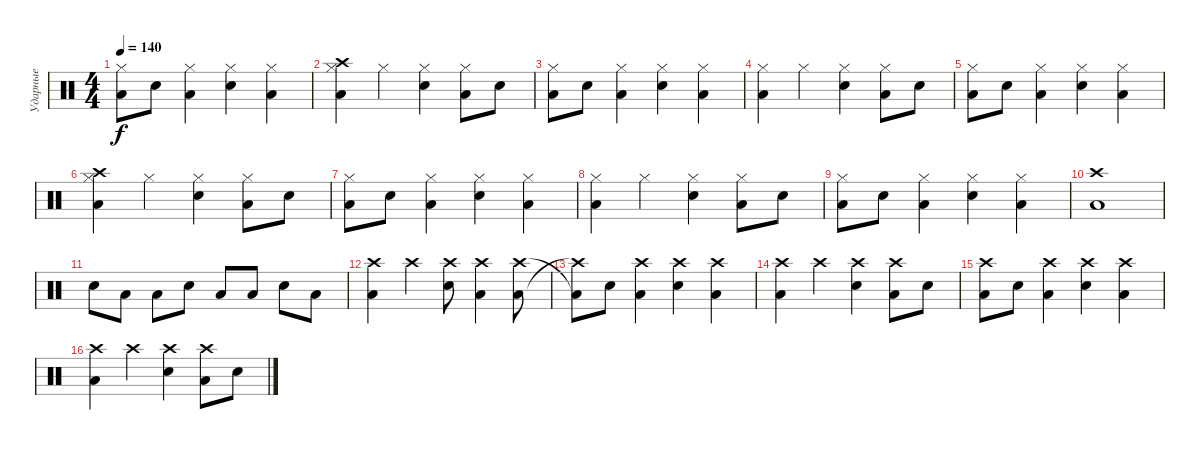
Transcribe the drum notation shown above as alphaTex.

\track ("Ударные" "Ударные") {instrument percussion}
\staff {score}
\articulation defaults
\ts (4 4)
\tempo 140
\clef neutral
\ks c
("Hi-Hat (closed)" "Low Floor Tom (hit)").8{dy f} "Electric Snare (hit)".8 ("Hi-Hat (closed)" "Low Floor Tom (hit)").4 ("Electric Snare (hit)" "Hi-Hat (closed)").4 ("Low Floor Tom (hit)" "Hi-Hat (closed)").4 |
("Hi-Hat (closed)" "Crash high (hit)" "Low Floor Tom (hit)").4 "Hi-Hat (closed)".4 ("Hi-Hat (closed)" "Electric Snare (hit)").4 ("Hi-Hat (closed)" "Low Floor Tom (hit)").8 "Electric Snare (hit)".8 |
("Hi-Hat (closed)" "Low Floor Tom (hit)").8 "Electric Snare (hit)".8 ("Hi-Hat (closed)" "Low Floor Tom (hit)").4 ("Electric Snare (hit)" "Hi-Hat (closed)").4 ("Low Floor Tom (hit)" "Hi-Hat (closed)").4 |
("Hi-Hat (closed)" "Low Floor Tom (hit)").4 "Hi-Hat (closed)".4 ("Hi-Hat (closed)" "Electric Snare (hit)").4 ("Hi-Hat (closed)" "Low Floor Tom (hit)").8 "Electric Snare (hit)".8 |
("Hi-Hat (closed)" "Low Floor Tom (hit)").8 "Electric Snare (hit)".8 ("Hi-Hat (closed)" "Low Floor Tom (hit)").4 ("Electric Snare (hit)" "Hi-Hat (closed)").4 ("Low Floor Tom (hit)" "Hi-Hat (closed)").4 |
("Hi-Hat (closed)" "Crash high (hit)" "Low Floor Tom (hit)").4 "Hi-Hat (closed)".4 ("Hi-Hat (closed)" "Electric Snare (hit)").4 ("Hi-Hat (closed)" "Low Floor Tom (hit)").8 "Electric Snare (hit)".8 |
("Hi-Hat (closed)" "Low Floor Tom (hit)").8 "Electric Snare (hit)".8 ("Hi-Hat (closed)" "Low Floor Tom (hit)").4 ("Electric Snare (hit)" "Hi-Hat (closed)").4 ("Low Floor Tom (hit)" "Hi-Hat (closed)").4 |
("Hi-Hat (closed)" "Low Floor Tom (hit)").4 "Hi-Hat (closed)".4 ("Hi-Hat (closed)" "Electric Snare (hit)").4 ("Hi-Hat (closed)" "Low Floor Tom (hit)").8 "Electric Snare (hit)".8 |
("Hi-Hat (closed)" "Low Floor Tom (hit)").8 "Electric Snare (hit)".8 ("Hi-Hat (closed)" "Low Floor Tom (hit)").4 ("Electric Snare (hit)" "Hi-Hat (closed)").4 ("Low Floor Tom (hit)" "Hi-Hat (closed)").4 |
("Crash high (hit)" "Low Floor Tom (hit)").1 |
"Electric Snare (hit)".8 "Low Tom (hit)".8 "Low Tom (hit)".8 "Electric Snare (hit)".8 "Low Tom (hit)".8 "Low Tom (hit)".8 "Electric Snare (hit)".8 "Low Tom (hit)".8 |
("Crash high (hit)" "Low Floor Tom (hit)").4 "Crash high (hit)".4 ("Crash high (hit)" "Electric Snare (hit)").8 ("Crash high (hit)" "Low Floor Tom (hit)").4 ("Low Floor Tom (hit)" "Crash high (hit)").8 |
("Crash high (hit)"{t} "Low Floor Tom (hit)"{t}).8 "Electric Snare (hit)".8 ("Crash high (hit)" "Low Floor Tom (hit)").4 ("Crash high (hit)" "Electric Snare (hit)").4 ("Low Floor Tom (hit)" "Crash high (hit)").4 |
("Crash high (hit)" "Low Floor Tom (hit)").4 "Crash high (hit)".4 ("Crash high (hit)" "Electric Snare (hit)").4 ("Crash high (hit)" "Low Floor Tom (hit)").8 "Electric Snare (hit)".8 |
("Crash high (hit)" "Low Floor Tom (hit)").8 "Electric Snare (hit)".8 ("Crash high (hit)" "Low Floor Tom (hit)").4 ("Electric Snare (hit)" "Crash high (hit)").4 ("Low Floor Tom (hit)" "Crash high (hit)").4 |
("Crash high (hit)" "Low Floor Tom (hit)").4 "Crash high (hit)".4 ("Crash high (hit)" "Electric Snare (hit)").4 ("Crash high (hit)" "Low Floor Tom (hit)").8 "Electric Snare (hit)".8
